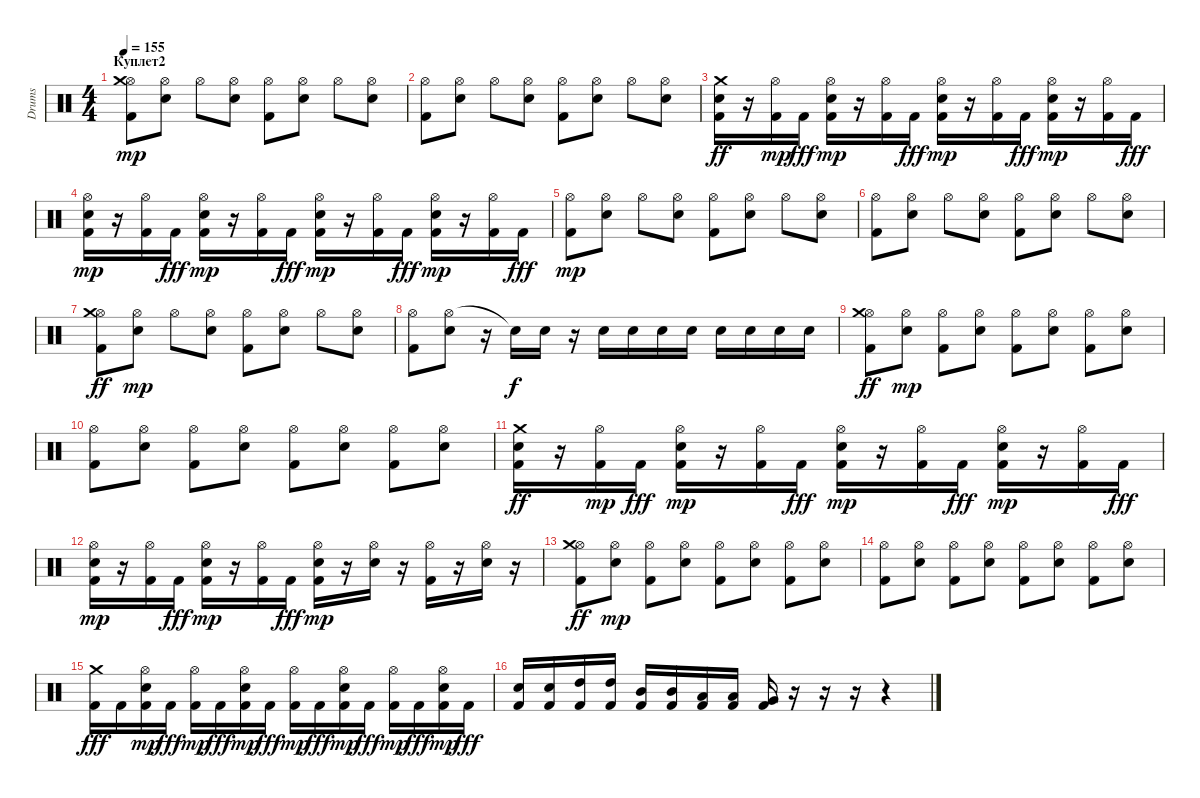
\track ("Drums" "Drums") {instrument percussion}
\staff {score}
\articulation defaults
\ts (4 4)
\section ("" "Куплет2")
\tempo 155
\clef neutral
\ks c
("Kick (hit) 2" "Hi-Hat (open)" "Crash medium (hit)").8{dy mp} ("Hi-Hat (open)" "Snare (hit) 2").8 "Hi-Hat (open)".8 ("Hi-Hat (open)" "Snare (hit) 2").8 ("Kick (hit) 2" "Hi-Hat (open)").8 ("Hi-Hat (open)" "Snare (hit) 2").8 "Hi-Hat (open)".8 ("Hi-Hat (open)" "Snare (hit) 2").8 |
("Kick (hit) 2" "Hi-Hat (open)").8 ("Hi-Hat (open)" "Snare (hit) 2").8 "Hi-Hat (open)".8 ("Hi-Hat (open)" "Snare (hit) 2").8 ("Kick (hit) 2" "Hi-Hat (open)").8 ("Hi-Hat (open)" "Snare (hit) 2").8 "Hi-Hat (open)".8 ("Hi-Hat (open)" "Snare (hit) 2").8 |
("Kick (hit) 2" "Snare (hit) 2" "Crash medium (hit)").16{dy ff} r.16 ("Kick (hit) 2" "Hi-Hat (open)").16{dy mp} "Kick (hit) 2".16{dy fff} ("Kick (hit) 2" "Hi-Hat (open)" "Snare (hit) 2").16{dy mp} r.16 ("Kick (hit) 2" "Hi-Hat (open)").16 "Kick (hit) 2".16{dy fff} ("Kick (hit) 2" "Hi-Hat (open)" "Snare (hit) 2").16{dy mp} r.16 ("Kick (hit) 2" "Hi-Hat (open)").16 "Kick (hit) 2".16{dy fff} ("Kick (hit) 2" "Hi-Hat (open)" "Snare (hit) 2").16{dy mp} r.16 ("Kick (hit) 2" "Hi-Hat (open)").16 "Kick (hit) 2".16{dy fff} |
("Kick (hit) 2" "Hi-Hat (open)" "Snare (hit) 2").16{dy mp} r.16 ("Kick (hit) 2" "Hi-Hat (open)").16 "Kick (hit) 2".16{dy fff} ("Kick (hit) 2" "Hi-Hat (open)" "Snare (hit) 2").16{dy mp} r.16 ("Kick (hit) 2" "Hi-Hat (open)").16 "Kick (hit) 2".16{dy fff} ("Kick (hit) 2" "Hi-Hat (open)" "Snare (hit) 2").16{dy mp} r.16 ("Kick (hit) 2" "Hi-Hat (open)").16 "Kick (hit) 2".16{dy fff} ("Kick (hit) 2" "Hi-Hat (open)" "Snare (hit) 2").16{dy mp} r.16 ("Kick (hit) 2" "Hi-Hat (open)").16 "Kick (hit) 2".16{dy fff} |
("Kick (hit) 2" "Hi-Hat (open)").8{dy mp} ("Hi-Hat (open)" "Snare (hit) 2").8 "Hi-Hat (open)".8 ("Hi-Hat (open)" "Snare (hit) 2").8 ("Kick (hit) 2" "Hi-Hat (open)").8 ("Hi-Hat (open)" "Snare (hit) 2").8 "Hi-Hat (open)".8 ("Hi-Hat (open)" "Snare (hit) 2").8 |
("Kick (hit) 2" "Hi-Hat (open)").8 ("Hi-Hat (open)" "Snare (hit) 2").8 "Hi-Hat (open)".8 ("Hi-Hat (open)" "Snare (hit) 2").8 ("Kick (hit) 2" "Hi-Hat (open)").8 ("Hi-Hat (open)" "Snare (hit) 2").8 "Hi-Hat (open)".8 ("Hi-Hat (open)" "Snare (hit) 2").8 |
("Kick (hit) 2" "Hi-Hat (open)" "Crash medium (hit)").8{dy ff} ("Hi-Hat (open)" "Snare (hit) 2").8{dy mp} "Hi-Hat (open)".8 ("Hi-Hat (open)" "Snare (hit) 2").8 ("Kick (hit) 2" "Hi-Hat (open)").8 ("Hi-Hat (open)" "Snare (hit) 2").8 "Hi-Hat (open)".8 ("Hi-Hat (open)" "Snare (hit) 2").8 |
("Kick (hit) 2" "Hi-Hat (open)").8 ("Hi-Hat (open)" "Snare (hit) 2").8 r.16 "Snare (hit) 2"{t}.16{dy f} "Snare (hit) 2".16 r.16 "Snare (hit) 2".16 "Snare (hit) 2".16 "Snare (hit) 2".16 "Snare (hit) 2".16 "Snare (hit) 2".16 "Snare (hit) 2".16 "Snare (hit) 2".16 "Snare (hit) 2".16 |
("Kick (hit) 2" "Hi-Hat (open)" "Crash medium (hit)").8{dy ff} ("Hi-Hat (open)" "Snare (hit) 2").8{dy mp} ("Kick (hit) 2" "Hi-Hat (open)").8 ("Hi-Hat (open)" "Snare (hit) 2").8 ("Kick (hit) 2" "Hi-Hat (open)").8 ("Hi-Hat (open)" "Snare (hit) 2").8 ("Kick (hit) 2" "Hi-Hat (open)").8 ("Hi-Hat (open)" "Snare (hit) 2").8 |
("Kick (hit) 2" "Hi-Hat (open)").8 ("Hi-Hat (open)" "Snare (hit) 2").8 ("Kick (hit) 2" "Hi-Hat (open)").8 ("Hi-Hat (open)" "Snare (hit) 2").8 ("Kick (hit) 2" "Hi-Hat (open)").8 ("Hi-Hat (open)" "Snare (hit) 2").8 ("Kick (hit) 2" "Hi-Hat (open)").8 ("Hi-Hat (open)" "Snare (hit) 2").8 |
("Kick (hit) 2" "Snare (hit) 2" "Crash medium (hit)").16{dy ff} r.16 ("Kick (hit) 2" "Hi-Hat (open)").16{dy mp} "Kick (hit) 2".16{dy fff} ("Kick (hit) 2" "Hi-Hat (open)" "Snare (hit) 2").16{dy mp} r.16 ("Kick (hit) 2" "Hi-Hat (open)").16 "Kick (hit) 2".16{dy fff} ("Kick (hit) 2" "Hi-Hat (open)" "Snare (hit) 2").16{dy mp} r.16 ("Kick (hit) 2" "Hi-Hat (open)").16 "Kick (hit) 2".16{dy fff} ("Kick (hit) 2" "Hi-Hat (open)" "Snare (hit) 2").16{dy mp} r.16 ("Kick (hit) 2" "Hi-Hat (open)").16 "Kick (hit) 2".16{dy fff} |
("Kick (hit) 2" "Hi-Hat (open)" "Snare (hit) 2").16{dy mp} r.16 ("Kick (hit) 2" "Hi-Hat (open)").16 "Kick (hit) 2".16{dy fff} ("Kick (hit) 2" "Hi-Hat (open)" "Snare (hit) 2").16{dy mp} r.16 ("Kick (hit) 2" "Hi-Hat (open)").16 "Kick (hit) 2".16{dy fff} ("Kick (hit) 2" "Hi-Hat (open)" "Snare (hit) 2").16{dy mp} r.16 ("Hi-Hat (open)" "Snare (hit) 2").16 r.16 ("Kick (hit) 2" "Hi-Hat (open)").16 r.16 ("Hi-Hat (open)" "Snare (hit) 2").16 r.16 |
("Kick (hit) 2" "Hi-Hat (open)" "Crash medium (hit)").8{dy ff} ("Hi-Hat (open)" "Snare (hit) 2").8{dy mp} ("Kick (hit) 2" "Hi-Hat (open)").8 ("Hi-Hat (open)" "Snare (hit) 2").8 ("Kick (hit) 2" "Hi-Hat (open)").8 ("Hi-Hat (open)" "Snare (hit) 2").8 ("Kick (hit) 2" "Hi-Hat (open)").8 ("Hi-Hat (open)" "Snare (hit) 2").8 |
("Kick (hit) 2" "Hi-Hat (open)").8 ("Hi-Hat (open)" "Snare (hit) 2").8 ("Kick (hit) 2" "Hi-Hat (open)").8 ("Hi-Hat (open)" "Snare (hit) 2").8 ("Kick (hit) 2" "Hi-Hat (open)").8 ("Hi-Hat (open)" "Snare (hit) 2").8 ("Kick (hit) 2" "Hi-Hat (open)").8 ("Hi-Hat (open)" "Snare (hit) 2").8 |
("Kick (hit) 2" "Crash medium (hit)").16{dy fff} "Kick (hit) 2".16 ("Kick (hit) 2" "Hi-Hat (open)" "Snare (hit) 2").16{dy mp} "Kick (hit) 2".16{dy fff} ("Kick (hit) 2" "Hi-Hat (open)").16{dy mp} "Kick (hit) 2".16{dy fff} ("Kick (hit) 2" "Hi-Hat (open)" "Snare (hit) 2").16{dy mp} "Kick (hit) 2".16{dy fff} ("Kick (hit) 2" "Hi-Hat (open)").16{dy mp} "Kick (hit) 2".16{dy fff} ("Kick (hit) 2" "Hi-Hat (open)" "Snare (hit) 2").16{dy mp} "Kick (hit) 2".16{dy fff} ("Kick (hit) 2" "Hi-Hat (open)").16{dy mp} "Kick (hit) 2".16{dy fff} ("Kick (hit) 2" "Hi-Hat (open)" "Snare (hit) 2").16{dy mp} "Kick (hit) 2".16{dy fff} |
("Kick (hit) 2" "Snare (hit) 2").16 ("Kick (hit) 2" "Snare (hit) 2").16 ("Kick (hit) 2" "High Tom (hit)").16 ("Kick (hit) 2" "High Tom (hit)").16 ("Kick (hit) 2" "Mid Tom (hit)").16 ("Kick (hit) 2" "Mid Tom (hit)").16 ("Kick (hit) 2" "Low Tom (hit)").16 ("Kick (hit) 2" "Low Tom (hit)").16 ("Kick (hit) 2" "Very Low Tom (hit)").16 r.16 r.16 r.16 r.4
